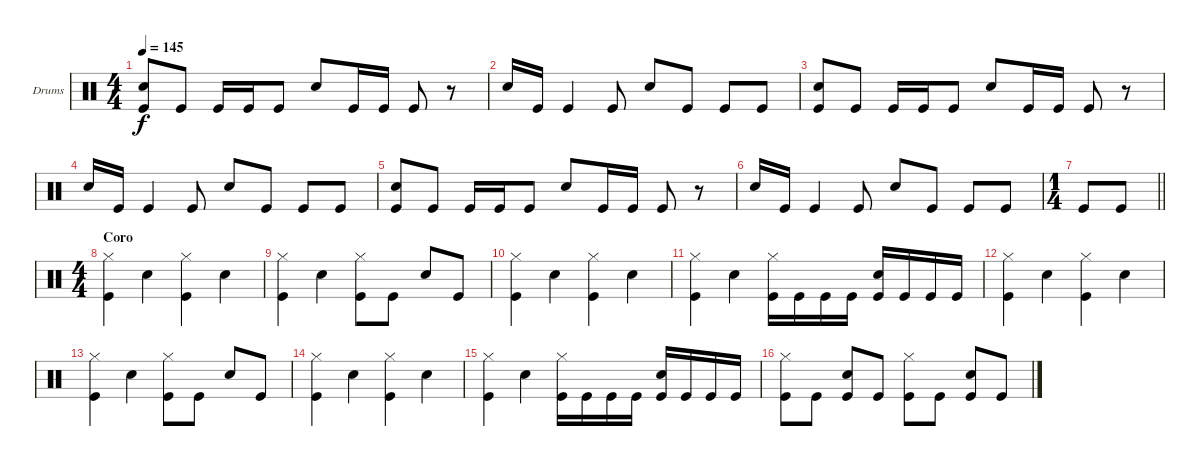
\bracketExtendMode groupsimilarinstruments
\firstSystemTrackNameOrientation horizontal
\otherSystemsTrackNameOrientation horizontal
\track ("Drumkit" "Drums") {instrument percussion}
\staff {score}
\articulation defaults
\ts (4 4)
\tempo 145
\clef neutral
\ks c
("Snare (hit) 2" "Kick (hit)").8{dy f} "Kick (hit)".8 "Kick (hit)".16 "Kick (hit)".16 "Kick (hit)".8 "Snare (hit) 2".8 "Kick (hit)".16 "Kick (hit)".16 "Kick (hit)".8 r.8 |
"Snare (hit) 2".16 "Kick (hit)".16 "Kick (hit)".4 "Kick (hit)".8 "Snare (hit) 2".8 "Kick (hit)".8 "Kick (hit)".8 "Kick (hit)".8 |
("Snare (hit) 2" "Kick (hit)").8 "Kick (hit)".8 "Kick (hit)".16 "Kick (hit)".16 "Kick (hit)".8 "Snare (hit) 2".8 "Kick (hit)".16 "Kick (hit)".16 "Kick (hit)".8 r.8 |
"Snare (hit) 2".16 "Kick (hit)".16 "Kick (hit)".4 "Kick (hit)".8 "Snare (hit) 2".8 "Kick (hit)".8 "Kick (hit)".8 "Kick (hit)".8 |
("Snare (hit) 2" "Kick (hit)").8 "Kick (hit)".8 "Kick (hit)".16 "Kick (hit)".16 "Kick (hit)".8 "Snare (hit) 2".8 "Kick (hit)".16 "Kick (hit)".16 "Kick (hit)".8 r.8 |
"Snare (hit) 2".16 "Kick (hit)".16 "Kick (hit)".4 "Kick (hit)".8 "Snare (hit) 2".8 "Kick (hit)".8 "Kick (hit)".8 "Kick (hit)".8 |
\ts (1 4)
\beaming (8 2)
\barLineRight lightlight "Kick (hit)".8 "Kick (hit)".8
|
\ts (4 4)
\beaming (8 2 2 2 2)
\section ("" "Coro")
("Hi-Hat (closed)" "Kick (hit)").4 "Snare (hit) 2".4 ("Hi-Hat (closed)" "Kick (hit)").4 "Snare (hit) 2".4 |
("Hi-Hat (closed)" "Kick (hit)").4 "Snare (hit) 2".4 ("Hi-Hat (closed)" "Kick (hit)").8 "Kick (hit)".8 "Snare (hit) 2".8 "Kick (hit)".8 |
("Hi-Hat (closed)" "Kick (hit)").4 "Snare (hit) 2".4 ("Hi-Hat (closed)" "Kick (hit)").4 "Snare (hit) 2".4 |
("Hi-Hat (closed)" "Kick (hit)").4 "Snare (hit) 2".4 ("Hi-Hat (closed)" "Kick (hit)").16 "Kick (hit)".16 "Kick (hit)".16 "Kick (hit)".16 ("Snare (hit) 2" "Kick (hit)").16 "Kick (hit)".16 "Kick (hit)".16 "Kick (hit)".16 |
("Hi-Hat (closed)" "Kick (hit)").4 "Snare (hit) 2".4 ("Hi-Hat (closed)" "Kick (hit)").4 "Snare (hit) 2".4 |
("Hi-Hat (closed)" "Kick (hit)").4 "Snare (hit) 2".4 ("Hi-Hat (closed)" "Kick (hit)").8 "Kick (hit)".8 "Snare (hit) 2".8 "Kick (hit)".8 |
("Hi-Hat (closed)" "Kick (hit)").4 "Snare (hit) 2".4 ("Hi-Hat (closed)" "Kick (hit)").4 "Snare (hit) 2".4 |
("Hi-Hat (closed)" "Kick (hit)").4 "Snare (hit) 2".4 ("Hi-Hat (closed)" "Kick (hit)").16 "Kick (hit)".16 "Kick (hit)".16 "Kick (hit)".16 ("Snare (hit) 2" "Kick (hit)").16 "Kick (hit)".16 "Kick (hit)".16 "Kick (hit)".16 |
("Hi-Hat (closed)" "Kick (hit)").8 "Kick (hit)".8 ("Snare (hit) 2" "Kick (hit)").8 "Kick (hit)".8 ("Hi-Hat (closed)" "Kick (hit)").8 "Kick (hit)".8 ("Snare (hit) 2" "Kick (hit)").8 "Kick (hit)".8
